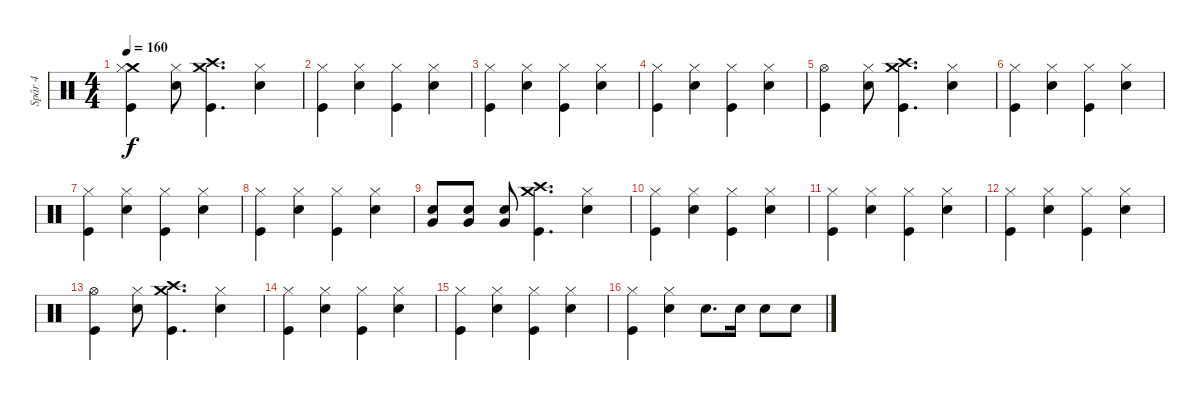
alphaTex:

\track ("Spår 4" "Spår 4") {instrument percussion}
\staff {score}
\articulation defaults
\ts (4 4)
\tempo 160
\clef neutral
\ks c
("Crash medium (hit)" "Hi-Hat (closed)" "Kick (hit)").4{dy f} ("Hi-Hat (closed)" "Snare (hit) 2").8 ("Crash medium (hit)" "Crash high (hit)" "Kick (hit)").4{d} ("Hi-Hat (closed)" "Snare (hit) 2").4 |
("Hi-Hat (closed)" "Kick (hit)").4 ("Hi-Hat (closed)" "Snare (hit) 2").4 ("Hi-Hat (closed)" "Kick (hit)").4 ("Hi-Hat (closed)" "Snare (hit) 2").4 |
("Hi-Hat (closed)" "Kick (hit)").4 ("Hi-Hat (closed)" "Snare (hit) 2").4 ("Hi-Hat (closed)" "Kick (hit)").4 ("Hi-Hat (closed)" "Snare (hit) 2").4 |
("Hi-Hat (closed)" "Kick (hit)").4 ("Hi-Hat (closed)" "Snare (hit) 2").4 ("Hi-Hat (closed)" "Kick (hit)").4 ("Hi-Hat (closed)" "Snare (hit) 2").4 |
("Hi-Hat (open)" "Kick (hit)").4 ("Hi-Hat (closed)" "Snare (hit) 2").8 ("Crash medium (hit)" "Crash high (hit)" "Kick (hit)").4{d} ("Hi-Hat (closed)" "Snare (hit) 2").4 |
("Hi-Hat (closed)" "Kick (hit)").4 ("Hi-Hat (closed)" "Snare (hit) 2").4 ("Hi-Hat (closed)" "Kick (hit)").4 ("Hi-Hat (closed)" "Snare (hit) 2").4 |
("Hi-Hat (closed)" "Kick (hit)").4 ("Hi-Hat (closed)" "Snare (hit) 2").4 ("Hi-Hat (closed)" "Kick (hit)").4 ("Hi-Hat (closed)" "Snare (hit) 2").4 |
("Hi-Hat (closed)" "Kick (hit)").4 ("Hi-Hat (closed)" "Snare (hit) 2").4 ("Hi-Hat (closed)" "Kick (hit)").4 ("Hi-Hat (closed)" "Snare (hit) 2").4 |
("Very Low Tom (hit)" "Snare (hit) 2").8 ("Very Low Tom (hit)" "Snare (hit) 2").8 ("Very Low Tom (hit)" "Snare (hit) 2").8 ("Crash medium (hit)" "Crash high (hit)" "Kick (hit)").4{d} ("Hi-Hat (closed)" "Snare (hit) 2").4 |
("Hi-Hat (closed)" "Kick (hit)").4 ("Hi-Hat (closed)" "Snare (hit) 2").4 ("Hi-Hat (closed)" "Kick (hit)").4 ("Hi-Hat (closed)" "Snare (hit) 2").4 |
("Hi-Hat (closed)" "Kick (hit)").4 ("Hi-Hat (closed)" "Snare (hit) 2").4 ("Hi-Hat (closed)" "Kick (hit)").4 ("Hi-Hat (closed)" "Snare (hit) 2").4 |
("Hi-Hat (closed)" "Kick (hit)").4 ("Hi-Hat (closed)" "Snare (hit) 2").4 ("Hi-Hat (closed)" "Kick (hit)").4 ("Hi-Hat (closed)" "Snare (hit) 2").4 |
("Hi-Hat (open)" "Kick (hit)").4 ("Hi-Hat (closed)" "Snare (hit) 2").8 ("Crash medium (hit)" "Crash high (hit)" "Kick (hit)").4{d} ("Hi-Hat (closed)" "Snare (hit) 2").4 |
("Hi-Hat (closed)" "Kick (hit)").4 ("Hi-Hat (closed)" "Snare (hit) 2").4 ("Hi-Hat (closed)" "Kick (hit)").4 ("Hi-Hat (closed)" "Snare (hit) 2").4 |
("Hi-Hat (closed)" "Kick (hit)").4 ("Hi-Hat (closed)" "Snare (hit) 2").4 ("Hi-Hat (closed)" "Kick (hit)").4 ("Hi-Hat (closed)" "Snare (hit) 2").4 |
("Hi-Hat (closed)" "Kick (hit)").4 ("Hi-Hat (closed)" "Snare (hit) 2").4 "Snare (hit) 2".8{d} "Snare (hit) 2".16 "Snare (hit) 2".8 "Snare (hit) 2".8
